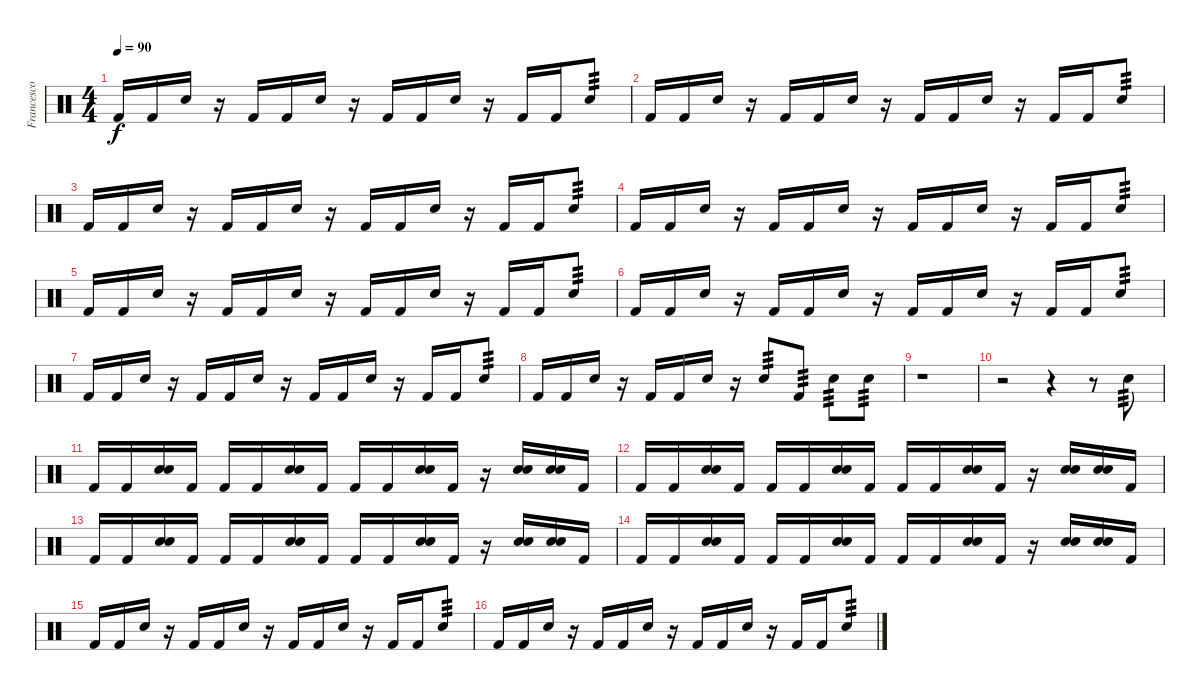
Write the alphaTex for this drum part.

\track ("Francesco -Franz- Valente" "Francesco ") {instrument percussion}
\staff {score}
\articulation defaults
\ts (4 4)
\tempo 90
\clef neutral
\ks c "Kick (hit) 2".16{dy f} "Kick (hit) 2".16 "Electric Snare (hit)".16
r.16 "Kick (hit) 2".16 "Kick (hit) 2".16 "Electric Snare (hit)".16 r.16 "Kick (hit) 2".16 "Kick (hit) 2".16 "Electric Snare (hit)".16 r.16 "Kick (hit) 2".16 "Kick (hit) 2".16 "Electric Snare (hit)".8{tp 3} |
"Kick (hit) 2".16 "Kick (hit) 2".16 "Electric Snare (hit)".16 r.16 "Kick (hit) 2".16 "Kick (hit) 2".16 "Electric Snare (hit)".16 r.16 "Kick (hit) 2".16 "Kick (hit) 2".16 "Electric Snare (hit)".16 r.16 "Kick (hit) 2".16 "Kick (hit) 2".16 "Electric Snare (hit)".8{tp 3} |
"Kick (hit) 2".16 "Kick (hit) 2".16 "Electric Snare (hit)".16 r.16 "Kick (hit) 2".16 "Kick (hit) 2".16 "Electric Snare (hit)".16 r.16 "Kick (hit) 2".16 "Kick (hit) 2".16 "Electric Snare (hit)".16 r.16 "Kick (hit) 2".16 "Kick (hit) 2".16 "Electric Snare (hit)".8{tp 3} |
"Kick (hit) 2".16 "Kick (hit) 2".16 "Electric Snare (hit)".16 r.16 "Kick (hit) 2".16 "Kick (hit) 2".16 "Electric Snare (hit)".16 r.16 "Kick (hit) 2".16 "Kick (hit) 2".16 "Electric Snare (hit)".16 r.16 "Kick (hit) 2".16 "Kick (hit) 2".16 "Electric Snare (hit)".8{tp 3} |
"Kick (hit) 2".16 "Kick (hit) 2".16 "Electric Snare (hit)".16 r.16 "Kick (hit) 2".16 "Kick (hit) 2".16 "Electric Snare (hit)".16 r.16 "Kick (hit) 2".16 "Kick (hit) 2".16 "Electric Snare (hit)".16 r.16 "Kick (hit) 2".16 "Kick (hit) 2".16 "Electric Snare (hit)".8{tp 3} |
"Kick (hit) 2".16 "Kick (hit) 2".16 "Electric Snare (hit)".16 r.16 "Kick (hit) 2".16 "Kick (hit) 2".16 "Electric Snare (hit)".16 r.16 "Kick (hit) 2".16 "Kick (hit) 2".16 "Electric Snare (hit)".16 r.16 "Kick (hit) 2".16 "Kick (hit) 2".16 "Electric Snare (hit)".8{tp 3} |
"Kick (hit) 2".16 "Kick (hit) 2".16 "Electric Snare (hit)".16 r.16 "Kick (hit) 2".16 "Kick (hit) 2".16 "Electric Snare (hit)".16 r.16 "Kick (hit) 2".16 "Kick (hit) 2".16 "Electric Snare (hit)".16 r.16 "Kick (hit) 2".16 "Kick (hit) 2".16 "Electric Snare (hit)".8{tp 3} |
"Kick (hit) 2".16 "Kick (hit) 2".16 "Electric Snare (hit)".16 r.16 "Kick (hit) 2".16 "Kick (hit) 2".16 "Electric Snare (hit)".16 r.16 "Electric Snare (hit)".8{tp 3} "Kick (hit) 2".8{tp 3} "Electric Snare (hit)".8{tp 3} "Snare (hit) 2".8{tp 3} |
r.1 |
r.2 r.4 r.8 "Electric Snare (hit)".8{tp 3} |
"Kick (hit) 2".16 "Kick (hit) 2".16 ("Electric Snare (hit)" "Electric Snare (hit)").16 "Kick (hit) 2".16 "Kick (hit) 2".16 "Kick (hit) 2".16 ("Electric Snare (hit)" "Electric Snare (hit)").16 "Kick (hit) 2".16 "Kick (hit) 2".16 "Kick (hit) 2".16 ("Electric Snare (hit)" "Electric Snare (hit)").16 "Kick (hit) 2".16 r.16 ("Electric Snare (hit)" "Electric Snare (hit)").16 ("Electric Snare (hit)" "Electric Snare (hit)").16 "Kick (hit) 2".16 |
"Kick (hit) 2".16 "Kick (hit) 2".16 ("Electric Snare (hit)" "Electric Snare (hit)").16 "Kick (hit) 2".16 "Kick (hit) 2".16 "Kick (hit) 2".16 ("Electric Snare (hit)" "Electric Snare (hit)").16 "Kick (hit) 2".16 "Kick (hit) 2".16 "Kick (hit) 2".16 ("Electric Snare (hit)" "Electric Snare (hit)").16 "Kick (hit) 2".16 r.16 ("Electric Snare (hit)" "Electric Snare (hit)").16 ("Electric Snare (hit)" "Electric Snare (hit)").16 "Kick (hit) 2".16 |
"Kick (hit) 2".16 "Kick (hit) 2".16 ("Electric Snare (hit)" "Electric Snare (hit)").16 "Kick (hit) 2".16 "Kick (hit) 2".16 "Kick (hit) 2".16 ("Electric Snare (hit)" "Electric Snare (hit)").16 "Kick (hit) 2".16 "Kick (hit) 2".16 "Kick (hit) 2".16 ("Electric Snare (hit)" "Electric Snare (hit)").16 "Kick (hit) 2".16 r.16 ("Electric Snare (hit)" "Electric Snare (hit)").16 ("Electric Snare (hit)" "Electric Snare (hit)").16 "Kick (hit) 2".16 |
"Kick (hit) 2".16 "Kick (hit) 2".16 ("Electric Snare (hit)" "Electric Snare (hit)").16 "Kick (hit) 2".16 "Kick (hit) 2".16 "Kick (hit) 2".16 ("Electric Snare (hit)" "Electric Snare (hit)").16 "Kick (hit) 2".16 "Kick (hit) 2".16 "Kick (hit) 2".16 ("Electric Snare (hit)" "Electric Snare (hit)").16 "Kick (hit) 2".16 r.16 ("Electric Snare (hit)" "Electric Snare (hit)").16 ("Electric Snare (hit)" "Electric Snare (hit)").16 "Kick (hit) 2".16 |
"Kick (hit) 2".16 "Kick (hit) 2".16 "Electric Snare (hit)".16 r.16 "Kick (hit) 2".16 "Kick (hit) 2".16 "Electric Snare (hit)".16 r.16 "Kick (hit) 2".16 "Kick (hit) 2".16 "Electric Snare (hit)".16 r.16 "Kick (hit) 2".16 "Kick (hit) 2".16 "Electric Snare (hit)".8{tp 3} |
"Kick (hit) 2".16 "Kick (hit) 2".16 "Electric Snare (hit)".16 r.16 "Kick (hit) 2".16 "Kick (hit) 2".16 "Electric Snare (hit)".16 r.16 "Kick (hit) 2".16 "Kick (hit) 2".16 "Electric Snare (hit)".16 r.16 "Kick (hit) 2".16 "Kick (hit) 2".16 "Electric Snare (hit)".8{tp 3}
